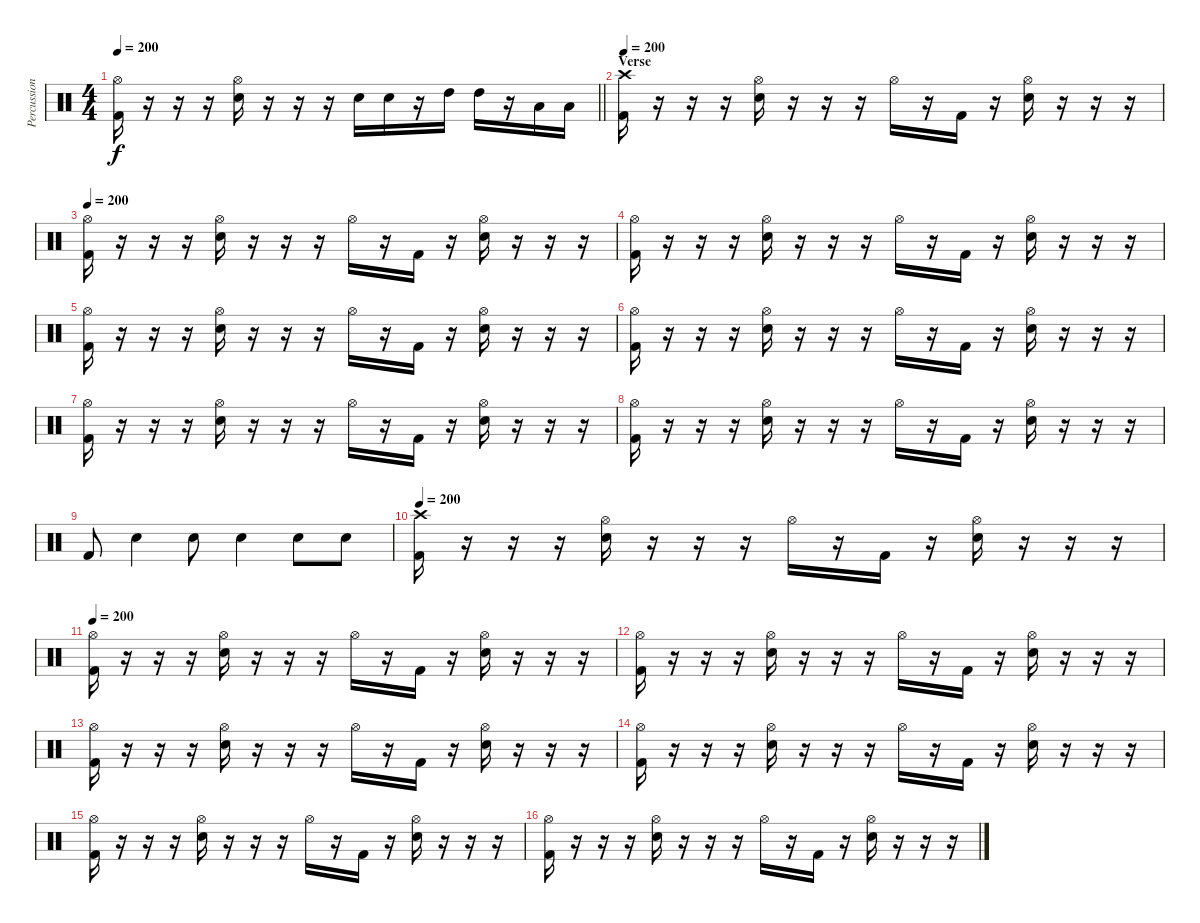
\track ("Percussion" "Percussion") {instrument percussion}
\staff {score}
\articulation defaults
\ts (4 4)
\tempo 200
\clef neutral
\barLineRight lightlight
\ks c
("Hi-Hat (open)" "Kick (hit) 2").16{dy f} r.16 r.16 r.16 ("Hi-Hat (open)" "Electric Snare (hit)").16 r.16 r.16 r.16 "Electric Snare (hit)".16 "Electric Snare (hit)".16 r.16 "High Tom (hit)".16 "High Tom (hit)".16 r.16 "Low Tom (hit)".16 "Low Tom (hit)".16 |
\section ("" "Verse")
\tempo 200
("Crash high (hit)" "Kick (hit) 2").16 r.16 r.16 r.16 ("Hi-Hat (open)" "Electric Snare (hit)").16 r.16 r.16 r.16 "Hi-Hat (open)".16 r.16 "Kick (hit) 2".16 r.16 ("Hi-Hat (open)" "Electric Snare (hit)").16 r.16 r.16 r.16 |
\tempo 200
("Hi-Hat (open)" "Kick (hit) 2").16 r.16 r.16 r.16 ("Hi-Hat (open)" "Electric Snare (hit)").16 r.16 r.16 r.16 "Hi-Hat (open)".16 r.16 "Kick (hit) 2".16 r.16 ("Hi-Hat (open)" "Electric Snare (hit)").16 r.16 r.16 r.16 |
("Hi-Hat (open)" "Kick (hit) 2").16 r.16 r.16 r.16 ("Hi-Hat (open)" "Electric Snare (hit)").16 r.16 r.16 r.16 "Hi-Hat (open)".16 r.16 "Kick (hit) 2".16 r.16 ("Hi-Hat (open)" "Electric Snare (hit)").16 r.16 r.16 r.16 |
("Hi-Hat (open)" "Kick (hit) 2").16 r.16 r.16 r.16 ("Hi-Hat (open)" "Electric Snare (hit)").16 r.16 r.16 r.16 "Hi-Hat (open)".16 r.16 "Kick (hit) 2".16 r.16 ("Hi-Hat (open)" "Electric Snare (hit)").16 r.16 r.16 r.16 |
("Hi-Hat (open)" "Kick (hit) 2").16 r.16 r.16 r.16 ("Hi-Hat (open)" "Electric Snare (hit)").16 r.16 r.16 r.16 "Hi-Hat (open)".16 r.16 "Kick (hit) 2".16 r.16 ("Hi-Hat (open)" "Electric Snare (hit)").16 r.16 r.16 r.16 |
("Hi-Hat (open)" "Kick (hit) 2").16 r.16 r.16 r.16 ("Hi-Hat (open)" "Electric Snare (hit)").16 r.16 r.16 r.16 "Hi-Hat (open)".16 r.16 "Kick (hit) 2".16 r.16 ("Hi-Hat (open)" "Electric Snare (hit)").16 r.16 r.16 r.16 |
("Hi-Hat (open)" "Kick (hit) 2").16 r.16 r.16 r.16 ("Hi-Hat (open)" "Electric Snare (hit)").16 r.16 r.16 r.16 "Hi-Hat (open)".16 r.16 "Kick (hit) 2".16 r.16 ("Hi-Hat (open)" "Electric Snare (hit)").16 r.16 r.16 r.16 |
"Kick (hit) 2".8 "Electric Snare (hit)".4 "Electric Snare (hit)".8 "Electric Snare (hit)".4 "Electric Snare (hit)".8 "Electric Snare (hit)".8 |
\tempo 200
("Crash high (hit)" "Kick (hit) 2").16 r.16 r.16 r.16 ("Hi-Hat (open)" "Electric Snare (hit)").16 r.16 r.16 r.16 "Hi-Hat (open)".16 r.16 "Kick (hit) 2".16 r.16 ("Hi-Hat (open)" "Electric Snare (hit)").16 r.16 r.16 r.16 |
\tempo 200
("Hi-Hat (open)" "Kick (hit) 2").16 r.16 r.16 r.16 ("Hi-Hat (open)" "Electric Snare (hit)").16 r.16 r.16 r.16 "Hi-Hat (open)".16 r.16 "Kick (hit) 2".16 r.16 ("Hi-Hat (open)" "Electric Snare (hit)").16 r.16 r.16 r.16 |
("Hi-Hat (open)" "Kick (hit) 2").16 r.16 r.16 r.16 ("Hi-Hat (open)" "Electric Snare (hit)").16 r.16 r.16 r.16 "Hi-Hat (open)".16 r.16 "Kick (hit) 2".16 r.16 ("Hi-Hat (open)" "Electric Snare (hit)").16 r.16 r.16 r.16 |
("Hi-Hat (open)" "Kick (hit) 2").16 r.16 r.16 r.16 ("Hi-Hat (open)" "Electric Snare (hit)").16 r.16 r.16 r.16 "Hi-Hat (open)".16 r.16 "Kick (hit) 2".16 r.16 ("Hi-Hat (open)" "Electric Snare (hit)").16 r.16 r.16 r.16 |
("Hi-Hat (open)" "Kick (hit) 2").16 r.16 r.16 r.16 ("Hi-Hat (open)" "Electric Snare (hit)").16 r.16 r.16 r.16 "Hi-Hat (open)".16 r.16 "Kick (hit) 2".16 r.16 ("Hi-Hat (open)" "Electric Snare (hit)").16 r.16 r.16 r.16 |
("Hi-Hat (open)" "Kick (hit) 2").16 r.16 r.16 r.16 ("Hi-Hat (open)" "Electric Snare (hit)").16 r.16 r.16 r.16 "Hi-Hat (open)".16 r.16 "Kick (hit) 2".16 r.16 ("Hi-Hat (open)" "Electric Snare (hit)").16 r.16 r.16 r.16 |
("Hi-Hat (open)" "Kick (hit) 2").16 r.16 r.16 r.16 ("Hi-Hat (open)" "Electric Snare (hit)").16 r.16 r.16 r.16 "Hi-Hat (open)".16 r.16 "Kick (hit) 2".16 r.16 ("Hi-Hat (open)" "Electric Snare (hit)").16 r.16 r.16 r.16
